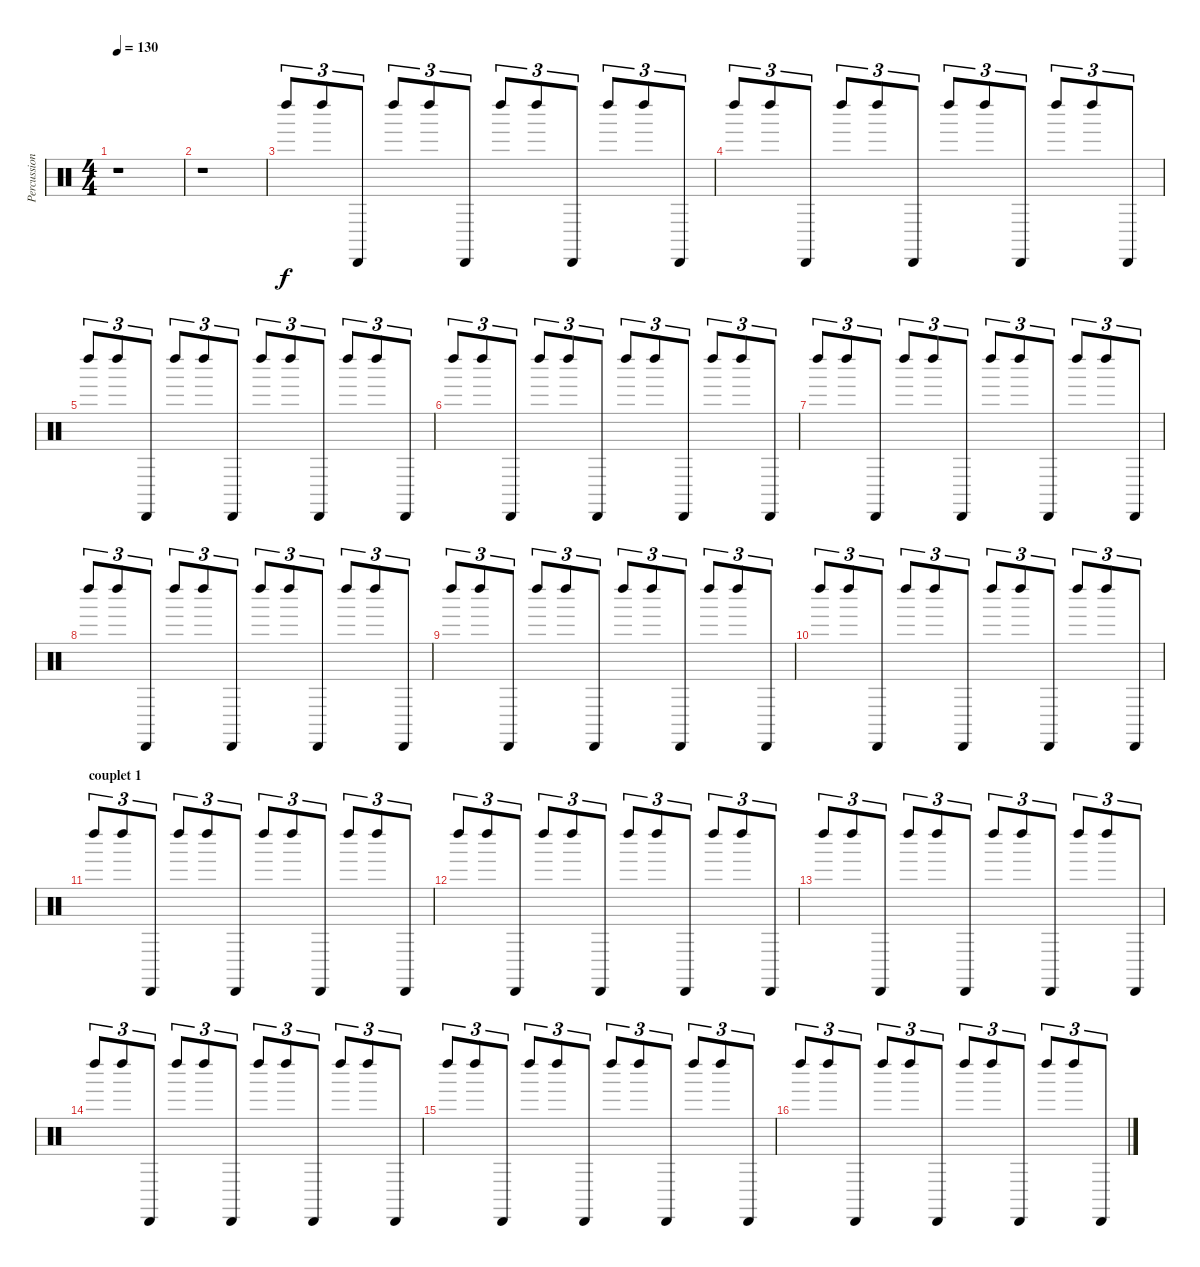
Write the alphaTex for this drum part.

\track ("Percussions Farrell Morris" "Percussion") {instrument percussion}
\staff {score}
\articulation defaults
\ts (4 4)
\tempo 130
\clef neutral
\ks c
r.1{dy f} |
r.1 |
"Left Maraca (hit)".8{tu (3 2)} "Left Maraca (hit)".8{tu (3 2)} "Cabasa (hit)".8{tu (3 2)} "Left Maraca (hit)".8{tu (3 2)} "Left Maraca (hit)".8{tu (3 2)} "Cabasa (hit)".8{tu (3 2)} "Left Maraca (hit)".8{tu (3 2)} "Left Maraca (hit)".8{tu (3 2)} "Cabasa (hit)".8{tu (3 2)} "Left Maraca (hit)".8{tu (3 2)} "Left Maraca (hit)".8{tu (3 2)} "Cabasa (hit)".8{tu (3 2)} |
"Left Maraca (hit)".8{tu (3 2)} "Left Maraca (hit)".8{tu (3 2)} "Cabasa (hit)".8{tu (3 2)} "Left Maraca (hit)".8{tu (3 2)} "Left Maraca (hit)".8{tu (3 2)} "Cabasa (hit)".8{tu (3 2)} "Left Maraca (hit)".8{tu (3 2)} "Left Maraca (hit)".8{tu (3 2)} "Cabasa (hit)".8{tu (3 2)} "Left Maraca (hit)".8{tu (3 2)} "Left Maraca (hit)".8{tu (3 2)} "Cabasa (hit)".8{tu (3 2)} |
"Left Maraca (hit)".8{tu (3 2)} "Left Maraca (hit)".8{tu (3 2)} "Cabasa (hit)".8{tu (3 2)} "Left Maraca (hit)".8{tu (3 2)} "Left Maraca (hit)".8{tu (3 2)} "Cabasa (hit)".8{tu (3 2)} "Left Maraca (hit)".8{tu (3 2)} "Left Maraca (hit)".8{tu (3 2)} "Cabasa (hit)".8{tu (3 2)} "Left Maraca (hit)".8{tu (3 2)} "Left Maraca (hit)".8{tu (3 2)} "Cabasa (hit)".8{tu (3 2)} |
"Left Maraca (hit)".8{tu (3 2)} "Left Maraca (hit)".8{tu (3 2)} "Cabasa (hit)".8{tu (3 2)} "Left Maraca (hit)".8{tu (3 2)} "Left Maraca (hit)".8{tu (3 2)} "Cabasa (hit)".8{tu (3 2)} "Left Maraca (hit)".8{tu (3 2)} "Left Maraca (hit)".8{tu (3 2)} "Cabasa (hit)".8{tu (3 2)} "Left Maraca (hit)".8{tu (3 2)} "Left Maraca (hit)".8{tu (3 2)} "Cabasa (hit)".8{tu (3 2)} |
"Left Maraca (hit)".8{tu (3 2)} "Left Maraca (hit)".8{tu (3 2)} "Cabasa (hit)".8{tu (3 2)} "Left Maraca (hit)".8{tu (3 2)} "Left Maraca (hit)".8{tu (3 2)} "Cabasa (hit)".8{tu (3 2)} "Left Maraca (hit)".8{tu (3 2)} "Left Maraca (hit)".8{tu (3 2)} "Cabasa (hit)".8{tu (3 2)} "Left Maraca (hit)".8{tu (3 2)} "Left Maraca (hit)".8{tu (3 2)} "Cabasa (hit)".8{tu (3 2)} |
"Left Maraca (hit)".8{tu (3 2)} "Left Maraca (hit)".8{tu (3 2)} "Cabasa (hit)".8{tu (3 2)} "Left Maraca (hit)".8{tu (3 2)} "Left Maraca (hit)".8{tu (3 2)} "Cabasa (hit)".8{tu (3 2)} "Left Maraca (hit)".8{tu (3 2)} "Left Maraca (hit)".8{tu (3 2)} "Cabasa (hit)".8{tu (3 2)} "Left Maraca (hit)".8{tu (3 2)} "Left Maraca (hit)".8{tu (3 2)} "Cabasa (hit)".8{tu (3 2)} |
"Left Maraca (hit)".8{tu (3 2)} "Left Maraca (hit)".8{tu (3 2)} "Cabasa (hit)".8{tu (3 2)} "Left Maraca (hit)".8{tu (3 2)} "Left Maraca (hit)".8{tu (3 2)} "Cabasa (hit)".8{tu (3 2)} "Left Maraca (hit)".8{tu (3 2)} "Left Maraca (hit)".8{tu (3 2)} "Cabasa (hit)".8{tu (3 2)} "Left Maraca (hit)".8{tu (3 2)} "Left Maraca (hit)".8{tu (3 2)} "Cabasa (hit)".8{tu (3 2)} |
"Left Maraca (hit)".8{tu (3 2)} "Left Maraca (hit)".8{tu (3 2)} "Cabasa (hit)".8{tu (3 2)} "Left Maraca (hit)".8{tu (3 2)} "Left Maraca (hit)".8{tu (3 2)} "Cabasa (hit)".8{tu (3 2)} "Left Maraca (hit)".8{tu (3 2)} "Left Maraca (hit)".8{tu (3 2)} "Cabasa (hit)".8{tu (3 2)} "Left Maraca (hit)".8{tu (3 2)} "Left Maraca (hit)".8{tu (3 2)} "Cabasa (hit)".8{tu (3 2)} |
\section ("" "couplet 1")
"Left Maraca (hit)".8{tu (3 2)} "Left Maraca (hit)".8{tu (3 2)} "Cabasa (hit)".8{tu (3 2)} "Left Maraca (hit)".8{tu (3 2)} "Left Maraca (hit)".8{tu (3 2)} "Cabasa (hit)".8{tu (3 2)} "Left Maraca (hit)".8{tu (3 2)} "Left Maraca (hit)".8{tu (3 2)} "Cabasa (hit)".8{tu (3 2)} "Left Maraca (hit)".8{tu (3 2)} "Left Maraca (hit)".8{tu (3 2)} "Cabasa (hit)".8{tu (3 2)} |
"Left Maraca (hit)".8{tu (3 2)} "Left Maraca (hit)".8{tu (3 2)} "Cabasa (hit)".8{tu (3 2)} "Left Maraca (hit)".8{tu (3 2)} "Left Maraca (hit)".8{tu (3 2)} "Cabasa (hit)".8{tu (3 2)} "Left Maraca (hit)".8{tu (3 2)} "Left Maraca (hit)".8{tu (3 2)} "Cabasa (hit)".8{tu (3 2)} "Left Maraca (hit)".8{tu (3 2)} "Left Maraca (hit)".8{tu (3 2)} "Cabasa (hit)".8{tu (3 2)} |
"Left Maraca (hit)".8{tu (3 2)} "Left Maraca (hit)".8{tu (3 2)} "Cabasa (hit)".8{tu (3 2)} "Left Maraca (hit)".8{tu (3 2)} "Left Maraca (hit)".8{tu (3 2)} "Cabasa (hit)".8{tu (3 2)} "Left Maraca (hit)".8{tu (3 2)} "Left Maraca (hit)".8{tu (3 2)} "Cabasa (hit)".8{tu (3 2)} "Left Maraca (hit)".8{tu (3 2)} "Left Maraca (hit)".8{tu (3 2)} "Cabasa (hit)".8{tu (3 2)} |
"Left Maraca (hit)".8{tu (3 2)} "Left Maraca (hit)".8{tu (3 2)} "Cabasa (hit)".8{tu (3 2)} "Left Maraca (hit)".8{tu (3 2)} "Left Maraca (hit)".8{tu (3 2)} "Cabasa (hit)".8{tu (3 2)} "Left Maraca (hit)".8{tu (3 2)} "Left Maraca (hit)".8{tu (3 2)} "Cabasa (hit)".8{tu (3 2)} "Left Maraca (hit)".8{tu (3 2)} "Left Maraca (hit)".8{tu (3 2)} "Cabasa (hit)".8{tu (3 2)} |
"Left Maraca (hit)".8{tu (3 2)} "Left Maraca (hit)".8{tu (3 2)} "Cabasa (hit)".8{tu (3 2)} "Left Maraca (hit)".8{tu (3 2)} "Left Maraca (hit)".8{tu (3 2)} "Cabasa (hit)".8{tu (3 2)} "Left Maraca (hit)".8{tu (3 2)} "Left Maraca (hit)".8{tu (3 2)} "Cabasa (hit)".8{tu (3 2)} "Left Maraca (hit)".8{tu (3 2)} "Left Maraca (hit)".8{tu (3 2)} "Cabasa (hit)".8{tu (3 2)} |
"Left Maraca (hit)".8{tu (3 2)} "Left Maraca (hit)".8{tu (3 2)} "Cabasa (hit)".8{tu (3 2)} "Left Maraca (hit)".8{tu (3 2)} "Left Maraca (hit)".8{tu (3 2)} "Cabasa (hit)".8{tu (3 2)} "Left Maraca (hit)".8{tu (3 2)} "Left Maraca (hit)".8{tu (3 2)} "Cabasa (hit)".8{tu (3 2)} "Left Maraca (hit)".8{tu (3 2)} "Left Maraca (hit)".8{tu (3 2)} "Cabasa (hit)".8{tu (3 2)}
